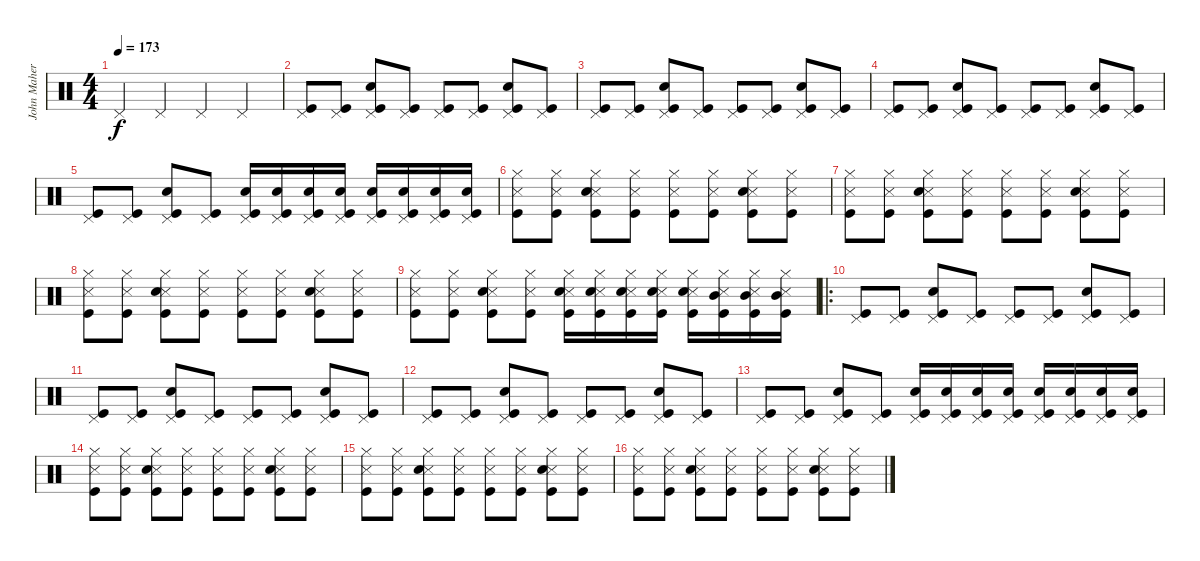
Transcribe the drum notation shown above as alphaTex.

\track ("John Maher" "John Maher") {instrument percussion}
\staff {score}
\articulation defaults
\ts (4 4)
\tempo 173
\clef neutral
\ks c "Pedal Hi-Hat (hit)".4{dy f} "Pedal Hi-Hat (hit)".4 "Pedal Hi-Hat (hit)".4 "Pedal Hi-Hat (hit)".4
|
("Pedal Hi-Hat (hit)" "Kick (hit)").8 ("Pedal Hi-Hat (hit)" "Kick (hit)").8 ("Pedal Hi-Hat (hit)" "Snare (hit) 2" "Kick (hit)").8 ("Pedal Hi-Hat (hit)" "Kick (hit)").8 ("Pedal Hi-Hat (hit)" "Kick (hit)").8 ("Pedal Hi-Hat (hit)" "Kick (hit)").8 ("Pedal Hi-Hat (hit)" "Snare (hit) 2" "Kick (hit)").8 ("Pedal Hi-Hat (hit)" "Kick (hit)").8 |
("Pedal Hi-Hat (hit)" "Kick (hit)").8 ("Pedal Hi-Hat (hit)" "Kick (hit)").8 ("Pedal Hi-Hat (hit)" "Snare (hit) 2" "Kick (hit)").8 ("Pedal Hi-Hat (hit)" "Kick (hit)").8 ("Pedal Hi-Hat (hit)" "Kick (hit)").8 ("Pedal Hi-Hat (hit)" "Kick (hit)").8 ("Pedal Hi-Hat (hit)" "Snare (hit) 2" "Kick (hit)").8 ("Pedal Hi-Hat (hit)" "Kick (hit)").8 |
("Pedal Hi-Hat (hit)" "Kick (hit)").8 ("Pedal Hi-Hat (hit)" "Kick (hit)").8 ("Pedal Hi-Hat (hit)" "Snare (hit) 2" "Kick (hit)").8 ("Pedal Hi-Hat (hit)" "Kick (hit)").8 ("Pedal Hi-Hat (hit)" "Kick (hit)").8 ("Pedal Hi-Hat (hit)" "Kick (hit)").8 ("Pedal Hi-Hat (hit)" "Snare (hit) 2" "Kick (hit)").8 ("Pedal Hi-Hat (hit)" "Kick (hit)").8 |
("Pedal Hi-Hat (hit)" "Kick (hit)").8 ("Pedal Hi-Hat (hit)" "Kick (hit)").8 ("Pedal Hi-Hat (hit)" "Snare (hit) 2" "Kick (hit)").8 ("Pedal Hi-Hat (hit)" "Kick (hit)").8 ("Pedal Hi-Hat (hit)" "Snare (hit) 2" "Kick (hit)").16 ("Pedal Hi-Hat (hit)" "Snare (hit) 2" "Kick (hit)").16 ("Pedal Hi-Hat (hit)" "Snare (hit) 2" "Kick (hit)").16 ("Pedal Hi-Hat (hit)" "Snare (hit) 2" "Kick (hit)").16 ("Pedal Hi-Hat (hit)" "Snare (hit) 2" "Kick (hit)").16 ("Pedal Hi-Hat (hit)" "Snare (hit) 2" "Kick (hit)").16 ("Pedal Hi-Hat (hit)" "Snare (hit) 2" "Kick (hit)").16 ("Pedal Hi-Hat (hit)" "Snare (hit) 2" "Kick (hit)").16 |
("Snare (side stick) 3" "Hi-Hat (closed)" "Kick (hit)").8 ("Snare (side stick) 3" "Hi-Hat (closed)" "Kick (hit)").8 ("Snare (side stick) 3" "Hi-Hat (closed)" "Snare (hit) 2" "Kick (hit)").8 ("Snare (side stick) 3" "Hi-Hat (closed)" "Kick (hit)").8 ("Snare (side stick) 3" "Hi-Hat (closed)" "Kick (hit)").8 ("Snare (side stick) 3" "Hi-Hat (closed)" "Kick (hit)").8 ("Snare (side stick) 3" "Hi-Hat (closed)" "Snare (hit) 2" "Kick (hit)").8 ("Snare (side stick) 3" "Hi-Hat (closed)" "Kick (hit)").8 |
("Snare (side stick) 3" "Hi-Hat (closed)" "Kick (hit)").8 ("Snare (side stick) 3" "Hi-Hat (closed)" "Kick (hit)").8 ("Snare (side stick) 3" "Hi-Hat (closed)" "Snare (hit) 2" "Kick (hit)").8 ("Snare (side stick) 3" "Hi-Hat (closed)" "Kick (hit)").8 ("Snare (side stick) 3" "Hi-Hat (closed)" "Kick (hit)").8 ("Snare (side stick) 3" "Hi-Hat (closed)" "Kick (hit)").8 ("Snare (side stick) 3" "Hi-Hat (closed)" "Snare (hit) 2" "Kick (hit)").8 ("Snare (side stick) 3" "Hi-Hat (closed)" "Kick (hit)").8 |
("Snare (side stick) 3" "Hi-Hat (closed)" "Kick (hit)").8 ("Snare (side stick) 3" "Hi-Hat (closed)" "Kick (hit)").8 ("Snare (side stick) 3" "Hi-Hat (closed)" "Snare (hit) 2" "Kick (hit)").8 ("Snare (side stick) 3" "Hi-Hat (closed)" "Kick (hit)").8 ("Snare (side stick) 3" "Hi-Hat (closed)" "Kick (hit)").8 ("Snare (side stick) 3" "Hi-Hat (closed)" "Kick (hit)").8 ("Snare (side stick) 3" "Hi-Hat (closed)" "Snare (hit) 2" "Kick (hit)").8 ("Snare (side stick) 3" "Hi-Hat (closed)" "Kick (hit)").8 |
("Snare (side stick) 3" "Hi-Hat (closed)" "Kick (hit)").8 ("Snare (side stick) 3" "Hi-Hat (closed)" "Kick (hit)").8 ("Snare (side stick) 3" "Hi-Hat (closed)" "Snare (hit) 2" "Kick (hit)").8 ("Snare (side stick) 3" "Hi-Hat (closed)" "Kick (hit)").8 ("Snare (side stick) 3" "Hi-Hat (closed)" "Snare (hit) 2" "Kick (hit)").16 ("Snare (side stick) 3" "Hi-Hat (closed)" "Snare (hit) 2" "Kick (hit)").16 ("Snare (side stick) 3" "Hi-Hat (closed)" "Snare (hit) 2" "Kick (hit)").16 ("Snare (side stick) 3" "Hi-Hat (closed)" "Snare (hit) 2" "Kick (hit)").16 ("Snare (side stick) 3" "Hi-Hat (closed)" "Snare (hit)" "Kick (hit)").16 ("Snare (side stick) 3" "Hi-Hat (closed)" "Mid Tom (hit)" "Kick (hit)").16 ("Snare (side stick) 3" "Hi-Hat (closed)" "Mid Tom (hit)" "Kick (hit)").16 ("Snare (side stick) 3" "Hi-Hat (closed)" "Mid Tom (hit)" "Kick (hit)").16 |
\ro
("Pedal Hi-Hat (hit)" "Kick (hit)").8 ("Pedal Hi-Hat (hit)" "Kick (hit)").8 ("Pedal Hi-Hat (hit)" "Snare (hit) 2" "Kick (hit)").8 ("Pedal Hi-Hat (hit)" "Kick (hit)").8 ("Pedal Hi-Hat (hit)" "Kick (hit)").8 ("Pedal Hi-Hat (hit)" "Kick (hit)").8 ("Pedal Hi-Hat (hit)" "Snare (hit) 2" "Kick (hit)").8 ("Pedal Hi-Hat (hit)" "Kick (hit)").8 |
("Pedal Hi-Hat (hit)" "Kick (hit)").8 ("Pedal Hi-Hat (hit)" "Kick (hit)").8 ("Pedal Hi-Hat (hit)" "Snare (hit) 2" "Kick (hit)").8 ("Pedal Hi-Hat (hit)" "Kick (hit)").8 ("Pedal Hi-Hat (hit)" "Kick (hit)").8 ("Pedal Hi-Hat (hit)" "Kick (hit)").8 ("Pedal Hi-Hat (hit)" "Snare (hit) 2" "Kick (hit)").8 ("Pedal Hi-Hat (hit)" "Kick (hit)").8 |
("Pedal Hi-Hat (hit)" "Kick (hit)").8 ("Pedal Hi-Hat (hit)" "Kick (hit)").8 ("Pedal Hi-Hat (hit)" "Snare (hit) 2" "Kick (hit)").8 ("Pedal Hi-Hat (hit)" "Kick (hit)").8 ("Pedal Hi-Hat (hit)" "Kick (hit)").8 ("Pedal Hi-Hat (hit)" "Kick (hit)").8 ("Pedal Hi-Hat (hit)" "Snare (hit) 2" "Kick (hit)").8 ("Pedal Hi-Hat (hit)" "Kick (hit)").8 |
("Pedal Hi-Hat (hit)" "Kick (hit)").8 ("Pedal Hi-Hat (hit)" "Kick (hit)").8 ("Pedal Hi-Hat (hit)" "Snare (hit) 2" "Kick (hit)").8 ("Pedal Hi-Hat (hit)" "Kick (hit)").8 ("Pedal Hi-Hat (hit)" "Snare (hit) 2" "Kick (hit)").16 ("Pedal Hi-Hat (hit)" "Snare (hit) 2" "Kick (hit)").16 ("Pedal Hi-Hat (hit)" "Snare (hit) 2" "Kick (hit)").16 ("Pedal Hi-Hat (hit)" "Snare (hit) 2" "Kick (hit)").16 ("Pedal Hi-Hat (hit)" "Snare (hit) 2" "Kick (hit)").16 ("Pedal Hi-Hat (hit)" "Snare (hit) 2" "Kick (hit)").16 ("Pedal Hi-Hat (hit)" "Snare (hit) 2" "Kick (hit)").16 ("Pedal Hi-Hat (hit)" "Snare (hit) 2" "Kick (hit)").16 |
("Snare (side stick) 3" "Hi-Hat (closed)" "Kick (hit)").8 ("Snare (side stick) 3" "Hi-Hat (closed)" "Kick (hit)").8 ("Snare (side stick) 3" "Hi-Hat (closed)" "Snare (hit) 2" "Kick (hit)").8 ("Snare (side stick) 3" "Hi-Hat (closed)" "Kick (hit)").8 ("Snare (side stick) 3" "Hi-Hat (closed)" "Kick (hit)").8 ("Snare (side stick) 3" "Hi-Hat (closed)" "Kick (hit)").8 ("Snare (side stick) 3" "Hi-Hat (closed)" "Snare (hit) 2" "Kick (hit)").8 ("Snare (side stick) 3" "Hi-Hat (closed)" "Kick (hit)").8 |
("Snare (side stick) 3" "Hi-Hat (closed)" "Kick (hit)").8 ("Snare (side stick) 3" "Hi-Hat (closed)" "Kick (hit)").8 ("Snare (side stick) 3" "Hi-Hat (closed)" "Snare (hit) 2" "Kick (hit)").8 ("Snare (side stick) 3" "Hi-Hat (closed)" "Kick (hit)").8 ("Snare (side stick) 3" "Hi-Hat (closed)" "Kick (hit)").8 ("Snare (side stick) 3" "Hi-Hat (closed)" "Kick (hit)").8 ("Snare (side stick) 3" "Hi-Hat (closed)" "Snare (hit) 2" "Kick (hit)").8 ("Snare (side stick) 3" "Hi-Hat (closed)" "Kick (hit)").8 |
("Snare (side stick) 3" "Hi-Hat (closed)" "Kick (hit)").8 ("Snare (side stick) 3" "Hi-Hat (closed)" "Kick (hit)").8 ("Snare (side stick) 3" "Hi-Hat (closed)" "Snare (hit) 2" "Kick (hit)").8 ("Snare (side stick) 3" "Hi-Hat (closed)" "Kick (hit)").8 ("Snare (side stick) 3" "Hi-Hat (closed)" "Kick (hit)").8 ("Snare (side stick) 3" "Hi-Hat (closed)" "Kick (hit)").8 ("Snare (side stick) 3" "Hi-Hat (closed)" "Snare (hit) 2" "Kick (hit)").8 ("Snare (side stick) 3" "Hi-Hat (closed)" "Kick (hit)").8
